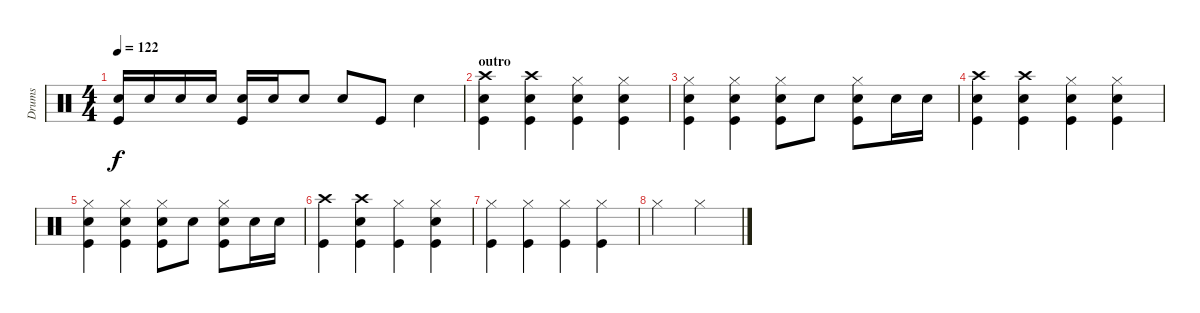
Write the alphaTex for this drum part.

\track ("Drums" "Drums") {instrument percussion}
\staff {score}
\articulation defaults
\ts (4 4)
\tempo 122
\clef neutral
\ks c
("Electric Snare (hit)" "Kick (hit)").16{dy f} "Electric Snare (hit)".16 "Electric Snare (hit)".16 "Electric Snare (hit)".16 ("Electric Snare (hit)" "Kick (hit)").16 "Electric Snare (hit)".16 "Electric Snare (hit)".8 "Electric Snare (hit)".8 "Kick (hit)".8 "Electric Snare (hit)".4 |
\section ("" "outro")
("Crash high (hit)" "Electric Snare (hit)" "Kick (hit)").4{volume 8} ("Crash high (hit)" "Electric Snare (hit)" "Kick (hit)").4 ("Hi-Hat (closed)" "Electric Snare (hit)" "Kick (hit)").4 ("Hi-Hat (closed)" "Electric Snare (hit)" "Kick (hit)").4 |
("Hi-Hat (closed)" "Electric Snare (hit)" "Kick (hit)").4 ("Hi-Hat (closed)" "Electric Snare (hit)" "Kick (hit)").4 ("Hi-Hat (closed)" "Electric Snare (hit)" "Kick (hit)").8 "Electric Snare (hit)".8 ("Hi-Hat (closed)" "Electric Snare (hit)" "Kick (hit)").8 "Electric Snare (hit)".16 "Electric Snare (hit)".16 |
("Crash high (hit)" "Electric Snare (hit)" "Kick (hit)").4 ("Crash high (hit)" "Electric Snare (hit)" "Kick (hit)").4 ("Hi-Hat (closed)" "Electric Snare (hit)" "Kick (hit)").4 ("Hi-Hat (closed)" "Electric Snare (hit)" "Kick (hit)").4 |
("Hi-Hat (closed)" "Electric Snare (hit)" "Kick (hit)").4 ("Hi-Hat (closed)" "Electric Snare (hit)" "Kick (hit)").4 ("Hi-Hat (closed)" "Electric Snare (hit)" "Kick (hit)").8 "Electric Snare (hit)".8 ("Hi-Hat (closed)" "Electric Snare (hit)" "Kick (hit)").8 "Electric Snare (hit)".16 "Electric Snare (hit)".16 |
("Crash high (hit)" "Kick (hit)").4{volume 0} ("Crash high (hit)" "Electric Snare (hit)" "Kick (hit)").4 ("Hi-Hat (closed)" "Kick (hit)").4 ("Hi-Hat (closed)" "Electric Snare (hit)" "Kick (hit)").4 |
("Hi-Hat (closed)" "Kick (hit)").4 ("Hi-Hat (closed)" "Kick (hit)").4 ("Hi-Hat (closed)" "Kick (hit)").4 ("Hi-Hat (closed)" "Kick (hit)").4 |
"Hi-Hat (closed)".2 "Hi-Hat (closed)".2
